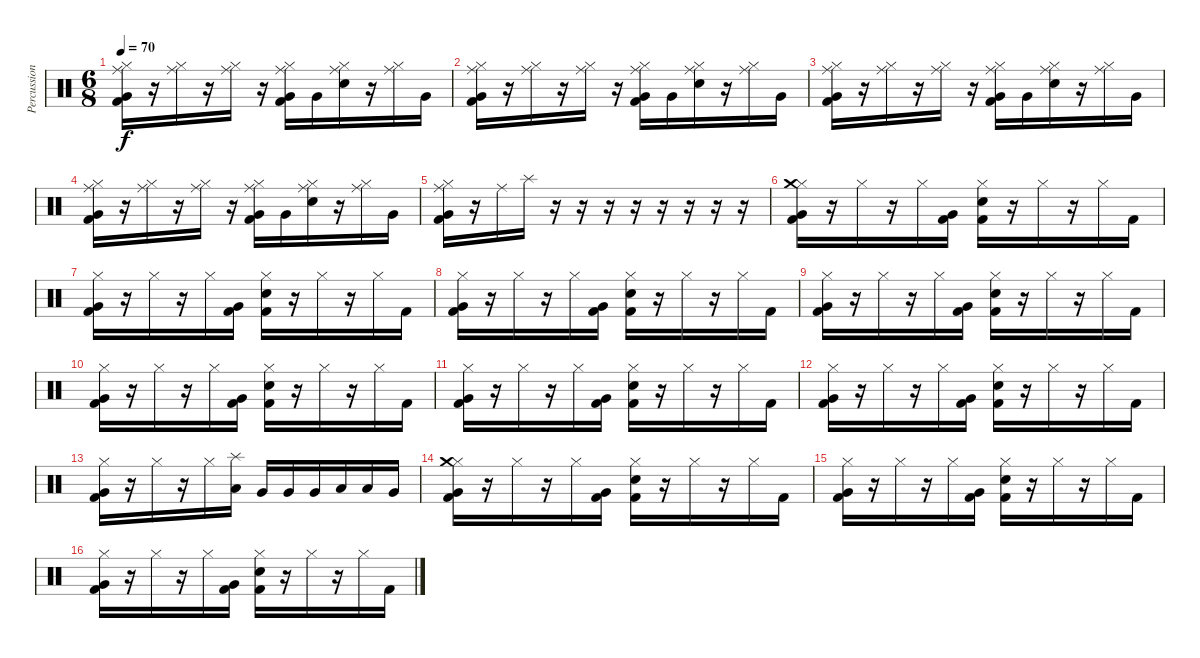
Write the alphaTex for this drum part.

\track ("Percussion" "Percussion") {instrument percussion}
\staff {score}
\articulation defaults
\ts (6 8)
\tempo 70
\clef neutral
\ks c
("Ride (middle)" "Very Low Tom (hit)" "Hi-Hat (closed)" "Kick (hit) 2").16{dy f} r.16 ("Ride (middle)" "Hi-Hat (closed)").16 r.16 ("Ride (middle)" "Hi-Hat (closed)").16 r.16 ("Ride (middle)" "Very Low Tom (hit)" "Hi-Hat (closed)" "Kick (hit) 2").16 "Very Low Tom (hit)".16 ("Ride (middle)" "Electric Snare (hit)" "Hi-Hat (closed)").16 r.16 ("Ride (middle)" "Hi-Hat (closed)").16 "Very Low Tom (hit)".16 |
("Ride (middle)" "Very Low Tom (hit)" "Hi-Hat (closed)" "Kick (hit) 2").16 r.16 ("Ride (middle)" "Hi-Hat (closed)").16 r.16 ("Ride (middle)" "Hi-Hat (closed)").16 r.16 ("Ride (middle)" "Very Low Tom (hit)" "Hi-Hat (closed)" "Kick (hit) 2").16 "Very Low Tom (hit)".16 ("Ride (middle)" "Electric Snare (hit)" "Hi-Hat (closed)").16 r.16 ("Ride (middle)" "Hi-Hat (closed)").16 "Very Low Tom (hit)".16 |
("Ride (middle)" "Very Low Tom (hit)" "Hi-Hat (closed)" "Kick (hit) 2").16 r.16 ("Ride (middle)" "Hi-Hat (closed)").16 r.16 ("Ride (middle)" "Hi-Hat (closed)").16 r.16 ("Ride (middle)" "Very Low Tom (hit)" "Hi-Hat (closed)" "Kick (hit) 2").16 "Very Low Tom (hit)".16 ("Ride (middle)" "Electric Snare (hit)" "Hi-Hat (closed)").16 r.16 ("Ride (middle)" "Hi-Hat (closed)").16 "Very Low Tom (hit)".16 |
("Ride (middle)" "Very Low Tom (hit)" "Hi-Hat (closed)" "Kick (hit) 2").16 r.16 ("Ride (middle)" "Hi-Hat (closed)").16 r.16 ("Ride (middle)" "Hi-Hat (closed)").16 r.16 ("Ride (middle)" "Very Low Tom (hit)" "Hi-Hat (closed)" "Kick (hit) 2").16 "Very Low Tom (hit)".16 ("Ride (middle)" "Electric Snare (hit)" "Hi-Hat (closed)").16 r.16 ("Ride (middle)" "Hi-Hat (closed)").16 "Very Low Tom (hit)".16 |
("Ride (middle)" "Very Low Tom (hit)" "Hi-Hat (closed)" "Kick (hit) 2").16 r.16 "Ride (middle)".16 "Splash (hit)".16 r.16 r.16 r.16 r.16 r.16 r.16 r.16 r.16 |
("Very Low Tom (hit)" "Hi-Hat (closed)" "Crash medium (hit)" "Kick (hit) 2").16 r.16 "Hi-Hat (closed)".16 r.16 "Hi-Hat (closed)".16 ("Kick (hit) 2" "Very Low Tom (hit)").16 ("Hi-Hat (closed)" "Electric Snare (hit)" "Kick (hit) 2").16 r.16 "Hi-Hat (closed)".16 r.16 "Hi-Hat (closed)".16 "Kick (hit) 2".16 |
("Very Low Tom (hit)" "Hi-Hat (closed)" "Kick (hit) 2").16 r.16 "Hi-Hat (closed)".16 r.16 "Hi-Hat (closed)".16 ("Kick (hit) 2" "Very Low Tom (hit)").16 ("Hi-Hat (closed)" "Electric Snare (hit)" "Kick (hit) 2").16 r.16 "Hi-Hat (closed)".16 r.16 "Hi-Hat (closed)".16 "Kick (hit) 2".16 |
("Very Low Tom (hit)" "Hi-Hat (closed)" "Kick (hit) 2").16 r.16 "Hi-Hat (closed)".16 r.16 "Hi-Hat (closed)".16 ("Kick (hit) 2" "Very Low Tom (hit)").16 ("Hi-Hat (closed)" "Electric Snare (hit)" "Kick (hit) 2").16 r.16 "Hi-Hat (closed)".16 r.16 "Hi-Hat (closed)".16 "Kick (hit) 2".16 |
("Very Low Tom (hit)" "Hi-Hat (closed)" "Kick (hit) 2").16 r.16 "Hi-Hat (closed)".16 r.16 "Hi-Hat (closed)".16 ("Kick (hit) 2" "Very Low Tom (hit)").16 ("Hi-Hat (closed)" "Electric Snare (hit)" "Kick (hit) 2").16 r.16 "Hi-Hat (closed)".16 r.16 "Hi-Hat (closed)".16 "Kick (hit) 2".16 |
("Very Low Tom (hit)" "Hi-Hat (closed)" "Kick (hit) 2").16 r.16 "Hi-Hat (closed)".16 r.16 "Hi-Hat (closed)".16 ("Kick (hit) 2" "Very Low Tom (hit)").16 ("Hi-Hat (closed)" "Electric Snare (hit)" "Kick (hit) 2").16 r.16 "Hi-Hat (closed)".16 r.16 "Hi-Hat (closed)".16 "Kick (hit) 2".16 |
("Very Low Tom (hit)" "Hi-Hat (closed)" "Kick (hit) 2").16 r.16 "Hi-Hat (closed)".16 r.16 "Hi-Hat (closed)".16 ("Kick (hit) 2" "Very Low Tom (hit)").16 ("Hi-Hat (closed)" "Electric Snare (hit)" "Kick (hit) 2").16 r.16 "Hi-Hat (closed)".16 r.16 "Hi-Hat (closed)".16 "Kick (hit) 2".16 |
("Very Low Tom (hit)" "Hi-Hat (closed)" "Kick (hit) 2").16 r.16 "Hi-Hat (closed)".16 r.16 "Hi-Hat (closed)".16 ("Kick (hit) 2" "Very Low Tom (hit)").16 ("Hi-Hat (closed)" "Electric Snare (hit)" "Kick (hit) 2").16 r.16 "Hi-Hat (closed)".16 r.16 "Hi-Hat (closed)".16 "Kick (hit) 2".16 |
("Very Low Tom (hit)" "Hi-Hat (closed)" "Kick (hit) 2").16 r.16 "Hi-Hat (closed)".16 r.16 "Hi-Hat (closed)".16 ("Splash (hit)" "Low Floor Tom (hit)").16 "Very Low Tom (hit)".16 "Very Low Tom (hit)".16 "Very Low Tom (hit)".16 "Low Floor Tom (hit)".16 "Low Floor Tom (hit)".16 "Very Low Tom (hit)".16 |
("Very Low Tom (hit)" "Hi-Hat (closed)" "Crash medium (hit)" "Kick (hit) 2").16 r.16 "Hi-Hat (closed)".16 r.16 "Hi-Hat (closed)".16 ("Kick (hit) 2" "Very Low Tom (hit)").16 ("Hi-Hat (closed)" "Electric Snare (hit)" "Kick (hit) 2").16 r.16 "Hi-Hat (closed)".16 r.16 "Hi-Hat (closed)".16 "Kick (hit) 2".16 |
("Very Low Tom (hit)" "Hi-Hat (closed)" "Kick (hit) 2").16 r.16 "Hi-Hat (closed)".16 r.16 "Hi-Hat (closed)".16 ("Kick (hit) 2" "Very Low Tom (hit)").16 ("Hi-Hat (closed)" "Electric Snare (hit)" "Kick (hit) 2").16 r.16 "Hi-Hat (closed)".16 r.16 "Hi-Hat (closed)".16 "Kick (hit) 2".16 |
("Very Low Tom (hit)" "Hi-Hat (closed)" "Kick (hit) 2").16 r.16 "Hi-Hat (closed)".16 r.16 "Hi-Hat (closed)".16 ("Kick (hit) 2" "Very Low Tom (hit)").16 ("Hi-Hat (closed)" "Electric Snare (hit)" "Kick (hit) 2").16 r.16 "Hi-Hat (closed)".16 r.16 "Hi-Hat (closed)".16 "Kick (hit) 2".16
